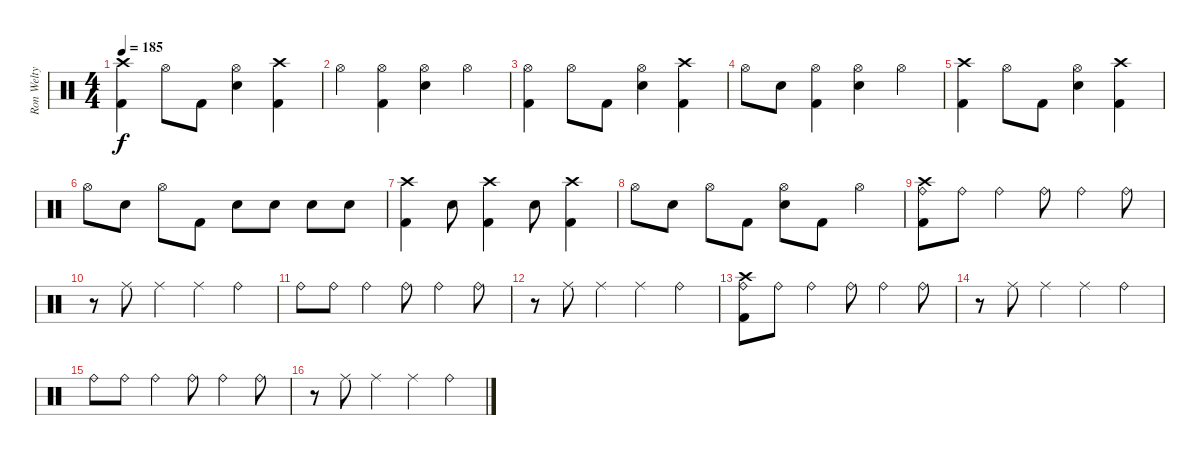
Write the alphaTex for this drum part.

\track ("Ron Welty" "Ron Welty") {instrument percussion}
\staff {score}
\articulation defaults
\ts (4 4)
\tempo 185
\clef neutral
\ks c
("Crash high (hit)" "Kick (hit) 2").4{dy f} "Hi-Hat (open)".8 "Kick (hit) 2".8 ("Hi-Hat (open)" "Electric Snare (hit)").4 ("Crash high (hit)" "Kick (hit) 2").4 |
"Hi-Hat (open)".4 ("Hi-Hat (open)" "Kick (hit) 2").4 ("Hi-Hat (open)" "Electric Snare (hit)").4 "Hi-Hat (open)".4 |
("Hi-Hat (open)" "Kick (hit) 2").4 "Hi-Hat (open)".8 "Kick (hit) 2".8 ("Hi-Hat (open)" "Electric Snare (hit)").4 ("Crash high (hit)" "Kick (hit) 2").4 |
"Hi-Hat (open)".8 "Electric Snare (hit)".8 ("Hi-Hat (open)" "Kick (hit) 2").4 ("Hi-Hat (open)" "Electric Snare (hit)").4 "Hi-Hat (open)".4 |
("Crash high (hit)" "Kick (hit) 2").4 "Hi-Hat (open)".8 "Kick (hit) 2".8 ("Hi-Hat (open)" "Electric Snare (hit)").4 ("Crash high (hit)" "Kick (hit) 2").4 |
"Hi-Hat (open)".8 "Electric Snare (hit)".8 "Hi-Hat (open)".8 "Kick (hit) 2".8 "Electric Snare (hit)".8 "Electric Snare (hit)".8 "Electric Snare (hit)".8 "Electric Snare (hit)".8 |
("Crash high (hit)" "Kick (hit) 2").4 "Electric Snare (hit)".8 ("Crash high (hit)" "Kick (hit) 2").4 "Electric Snare (hit)".8 ("Crash high (hit)" "Kick (hit) 2").4 |
"Hi-Hat (open)".8 "Electric Snare (hit)".8 "Hi-Hat (open)".8 "Kick (hit) 2".8 ("Hi-Hat (open)" "Electric Snare (hit)").8 "Kick (hit) 2".8 "Hi-Hat (open)".4 |
("Crash high (hit)" "Ride (bell)" "Kick (hit) 2").8 "Ride (bell)".8 "Ride (bell)".4 "Ride (bell)".8 "Ride (bell)".4 "Ride (bell)".8 |
r.8 "Ride (middle)".8 "Ride (middle)".4 "Ride (middle)".4 "Ride (bell)".4 |
"Ride (bell)".8 "Ride (bell)".8 "Ride (bell)".4 "Ride (bell)".8 "Ride (bell)".4 "Ride (bell)".8 |
r.8 "Ride (middle)".8 "Ride (middle)".4 "Ride (middle)".4 "Ride (bell)".4 |
("Crash high (hit)" "Ride (bell)" "Kick (hit) 2").8 "Ride (bell)".8 "Ride (bell)".4 "Ride (bell)".8 "Ride (bell)".4 "Ride (bell)".8 |
r.8 "Ride (middle)".8 "Ride (middle)".4 "Ride (middle)".4 "Ride (bell)".4 |
"Ride (bell)".8 "Ride (bell)".8 "Ride (bell)".4 "Ride (bell)".8 "Ride (bell)".4 "Ride (bell)".8 |
r.8 "Ride (middle)".8 "Ride (middle)".4 "Ride (middle)".4 "Ride (bell)".4
